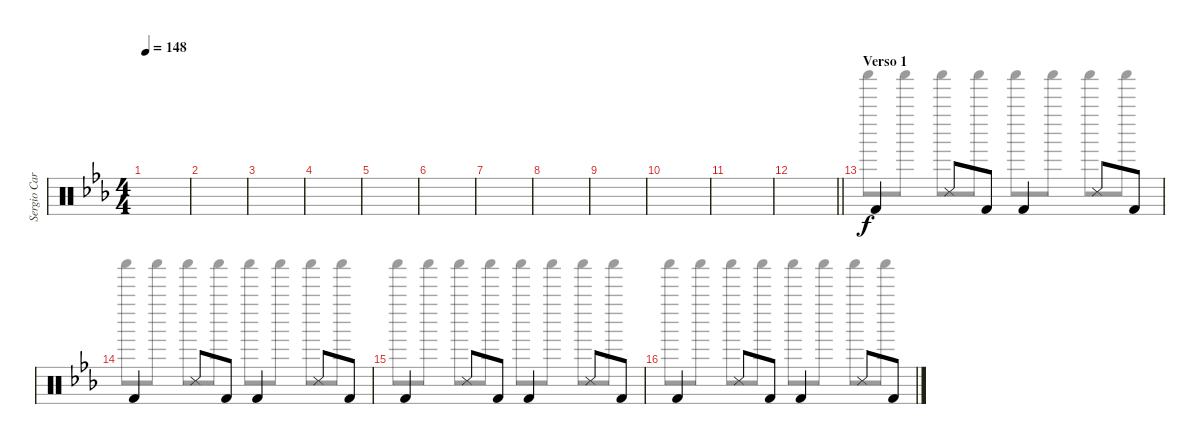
\track ("Sergio Carnevale [Batteria]" "Sergio Car") {instrument percussion}
\staff {score}
\articulation defaults
\voice
\ts (4 4)
\tempo 148
\clef neutral
\ks cminor
|
|
|
|
|
|
|
|
|
|
|
\barLineRight lightlight
|
\section ("" "Verso 1")
"Kick (hit) 2".4 "Snare (side stick) 3".8 "Kick (hit) 2".8 "Kick (hit) 2".4 "Snare (side stick) 3".8 "Kick (hit) 2".8 |
"Kick (hit) 2".4 "Snare (side stick) 3".8 "Kick (hit) 2".8 "Kick (hit) 2".4 "Snare (side stick) 3".8 "Kick (hit) 2".8 |
"Kick (hit) 2".4 "Snare (side stick) 3".8 "Kick (hit) 2".8 "Kick (hit) 2".4 "Snare (side stick) 3".8 "Kick (hit) 2".8 |
"Kick (hit) 2".4 "Snare (side stick) 3".8 "Kick (hit) 2".8 "Kick (hit) 2".4 "Snare (side stick) 3".8 "Kick (hit) 2".8
\voice
\clef neutral
\ottava regular
\simile none
\ks cminor
|
|
|
|
|
|
|
|
|
|
|
\barLineRight lightlight
|
"Shaker (hit)".8 "Shaker (hit)".8 "Shaker (hit)".8 "Shaker (hit)".8 "Shaker (hit)".8 "Shaker (hit)".8 "Shaker (hit)".8 "Shaker (hit)".8 |
"Shaker (hit)".8 "Shaker (hit)".8 "Shaker (hit)".8 "Shaker (hit)".8 "Shaker (hit)".8 "Shaker (hit)".8 "Shaker (hit)".8 "Shaker (hit)".8 |
"Shaker (hit)".8 "Shaker (hit)".8 "Shaker (hit)".8 "Shaker (hit)".8 "Shaker (hit)".8 "Shaker (hit)".8 "Shaker (hit)".8 "Shaker (hit)".8 |
"Shaker (hit)".8 "Shaker (hit)".8 "Shaker (hit)".8 "Shaker (hit)".8 "Shaker (hit)".8 "Shaker (hit)".8 "Shaker (hit)".8 "Shaker (hit)".8
